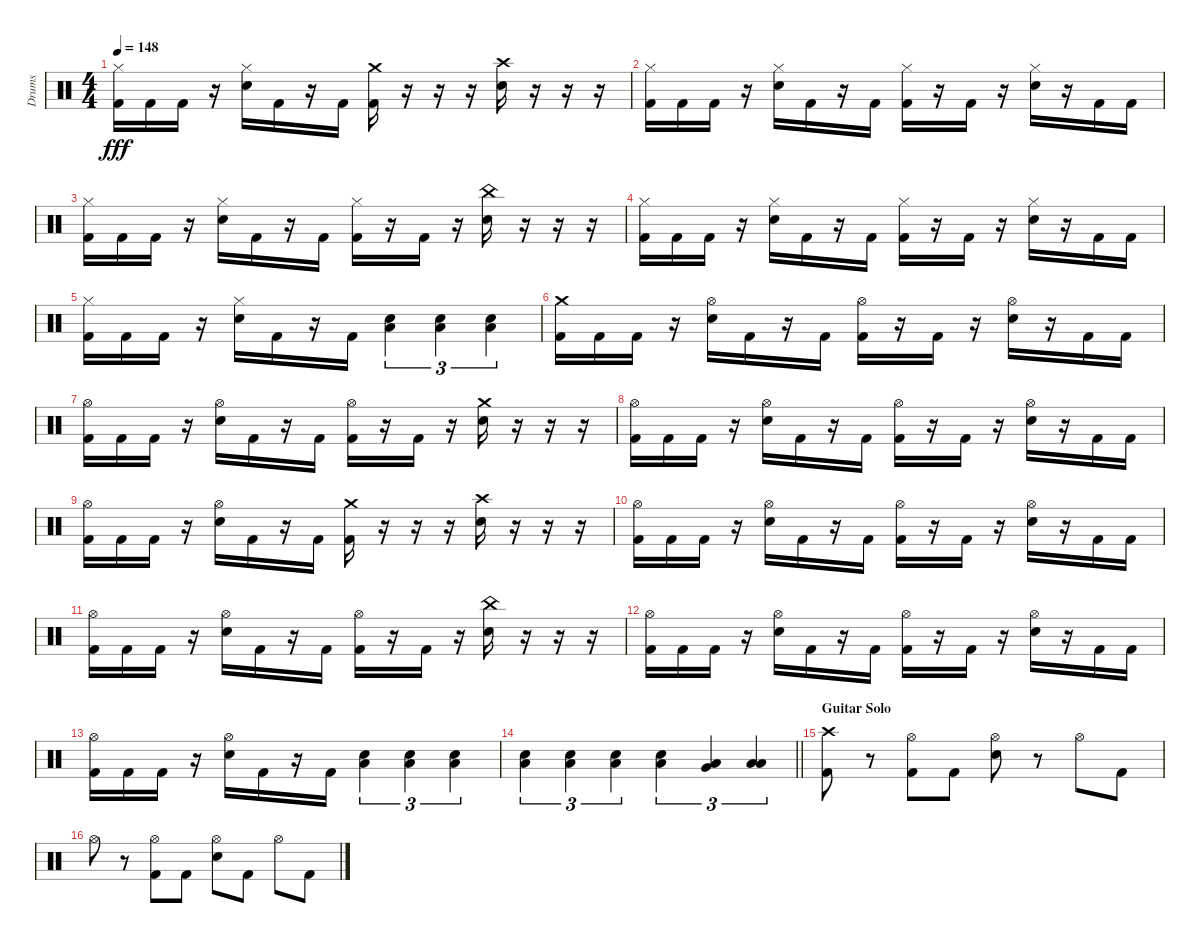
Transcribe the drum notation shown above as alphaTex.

\track ("Drums" "Drums") {instrument percussion}
\staff {score}
\articulation defaults
\ts (4 4)
\tempo 148
\clef neutral
\ks c
("Hi-Hat (closed)" "Kick (hit) 2").16{dy fff} "Kick (hit) 2".16 "Kick (hit) 2".16 r.16 ("Hi-Hat (closed)" "Electric Snare (hit)").16 "Kick (hit) 2".16 r.16 "Kick (hit) 2".16 ("Crash medium (hit)" "Kick (hit) 2").16 r.16 r.16 r.16 ("Crash high (hit)" "Electric Snare (hit)").16 r.16 r.16 r.16 |
("Hi-Hat (closed)" "Kick (hit) 2").16 "Kick (hit) 2".16 "Kick (hit) 2".16 r.16 ("Hi-Hat (closed)" "Electric Snare (hit)").16 "Kick (hit) 2".16 r.16 "Kick (hit) 2".16 ("Hi-Hat (closed)" "Kick (hit) 2").16 r.16 "Kick (hit) 2".16 r.16 ("Hi-Hat (closed)" "Electric Snare (hit)").16 r.16 "Kick (hit) 2".16 "Kick (hit) 2".16 |
("Hi-Hat (closed)" "Kick (hit) 2").16 "Kick (hit) 2".16 "Kick (hit) 2".16 r.16 ("Hi-Hat (closed)" "Electric Snare (hit)").16 "Kick (hit) 2".16 r.16 "Kick (hit) 2".16 ("Hi-Hat (closed)" "Kick (hit) 2").16 r.16 "Kick (hit) 2".16 r.16 ("China (hit)" "Electric Snare (hit)").16 r.16 r.16 r.16 |
("Hi-Hat (closed)" "Kick (hit) 2").16 "Kick (hit) 2".16 "Kick (hit) 2".16 r.16 ("Hi-Hat (closed)" "Electric Snare (hit)").16 "Kick (hit) 2".16 r.16 "Kick (hit) 2".16 ("Hi-Hat (closed)" "Kick (hit) 2").16 r.16 "Kick (hit) 2".16 r.16 ("Hi-Hat (closed)" "Electric Snare (hit)").16 r.16 "Kick (hit) 2".16 "Kick (hit) 2".16 |
("Hi-Hat (closed)" "Kick (hit) 2").16 "Kick (hit) 2".16 "Kick (hit) 2".16 r.16 ("Hi-Hat (closed)" "Electric Snare (hit)").16 "Kick (hit) 2".16 r.16 "Kick (hit) 2".16 ("Electric Snare (hit)" "Low Tom (hit)").4{tu (3 2)} ("Electric Snare (hit)" "Low Tom (hit)").4{tu (3 2)} ("Electric Snare (hit)" "Low Tom (hit)").4{tu (3 2)} |
("Crash medium (hit)" "Kick (hit) 2").16 "Kick (hit) 2".16 "Kick (hit) 2".16 r.16 ("Hi-Hat (open)" "Electric Snare (hit)").16 "Kick (hit) 2".16 r.16 "Kick (hit) 2".16 ("Hi-Hat (open)" "Kick (hit) 2").16 r.16 "Kick (hit) 2".16 r.16 ("Hi-Hat (open)" "Electric Snare (hit)").16 r.16 "Kick (hit) 2".16 "Kick (hit) 2".16 |
("Hi-Hat (open)" "Kick (hit) 2").16 "Kick (hit) 2".16 "Kick (hit) 2".16 r.16 ("Hi-Hat (open)" "Electric Snare (hit)").16 "Kick (hit) 2".16 r.16 "Kick (hit) 2".16 ("Hi-Hat (open)" "Kick (hit) 2").16 r.16 "Kick (hit) 2".16 r.16 ("Crash medium (hit)" "Electric Snare (hit)").16 r.16 r.16 r.16 |
("Hi-Hat (open)" "Kick (hit) 2").16 "Kick (hit) 2".16 "Kick (hit) 2".16 r.16 ("Hi-Hat (open)" "Electric Snare (hit)").16 "Kick (hit) 2".16 r.16 "Kick (hit) 2".16 ("Hi-Hat (open)" "Kick (hit) 2").16 r.16 "Kick (hit) 2".16 r.16 ("Hi-Hat (open)" "Electric Snare (hit)").16 r.16 "Kick (hit) 2".16 "Kick (hit) 2".16 |
("Hi-Hat (open)" "Kick (hit) 2").16 "Kick (hit) 2".16 "Kick (hit) 2".16 r.16 ("Hi-Hat (open)" "Electric Snare (hit)").16 "Kick (hit) 2".16 r.16 "Kick (hit) 2".16 ("Crash medium (hit)" "Kick (hit) 2").16 r.16 r.16 r.16 ("Crash high (hit)" "Electric Snare (hit)").16 r.16 r.16 r.16 |
("Hi-Hat (open)" "Kick (hit) 2").16 "Kick (hit) 2".16 "Kick (hit) 2".16 r.16 ("Hi-Hat (open)" "Electric Snare (hit)").16 "Kick (hit) 2".16 r.16 "Kick (hit) 2".16 ("Hi-Hat (open)" "Kick (hit) 2").16 r.16 "Kick (hit) 2".16 r.16 ("Hi-Hat (open)" "Electric Snare (hit)").16 r.16 "Kick (hit) 2".16 "Kick (hit) 2".16 |
("Hi-Hat (open)" "Kick (hit) 2").16 "Kick (hit) 2".16 "Kick (hit) 2".16 r.16 ("Hi-Hat (open)" "Electric Snare (hit)").16 "Kick (hit) 2".16 r.16 "Kick (hit) 2".16 ("Hi-Hat (open)" "Kick (hit) 2").16 r.16 "Kick (hit) 2".16 r.16 ("China (hit)" "Electric Snare (hit)").16 r.16 r.16 r.16 |
("Hi-Hat (open)" "Kick (hit) 2").16 "Kick (hit) 2".16 "Kick (hit) 2".16 r.16 ("Hi-Hat (open)" "Electric Snare (hit)").16 "Kick (hit) 2".16 r.16 "Kick (hit) 2".16 ("Hi-Hat (open)" "Kick (hit) 2").16 r.16 "Kick (hit) 2".16 r.16 ("Hi-Hat (open)" "Electric Snare (hit)").16 r.16 "Kick (hit) 2".16 "Kick (hit) 2".16 |
("Hi-Hat (open)" "Kick (hit) 2").16 "Kick (hit) 2".16 "Kick (hit) 2".16 r.16 ("Hi-Hat (open)" "Electric Snare (hit)").16 "Kick (hit) 2".16 r.16 "Kick (hit) 2".16 ("Electric Snare (hit)" "Low Tom (hit)").4{tu (3 2)} ("Electric Snare (hit)" "Low Tom (hit)").4{tu (3 2)} ("Electric Snare (hit)" "Low Tom (hit)").4{tu (3 2)} |
\barLineRight lightlight
("Electric Snare (hit)" "Low Tom (hit)").4{tu (3 2)} ("Electric Snare (hit)" "Low Tom (hit)").4{tu (3 2)} ("Electric Snare (hit)" "Low Tom (hit)").4{tu (3 2)} ("Electric Snare (hit)" "Low Tom (hit)").4{tu (3 2)} ("Very Low Tom (hit)" "Low Tom (hit)").4{tu (3 2)} ("Low Floor Tom (hit)" "Low Tom (hit)").4{tu (3 2)} |
\section ("" "Guitar Solo")
("Crash high (hit)" "Kick (hit) 2").8 r.8 ("Hi-Hat (open)" "Kick (hit) 2").8 "Kick (hit) 2".8 ("Hi-Hat (open)" "Electric Snare (hit)").8 r.8 "Hi-Hat (open)".8 "Kick (hit) 2".8 |
"Hi-Hat (open)".8 r.8 ("Hi-Hat (open)" "Kick (hit) 2").8 "Kick (hit) 2".8 ("Hi-Hat (open)" "Electric Snare (hit)").8 "Kick (hit) 2".8 "Hi-Hat (open)".8 "Kick (hit) 2".8
